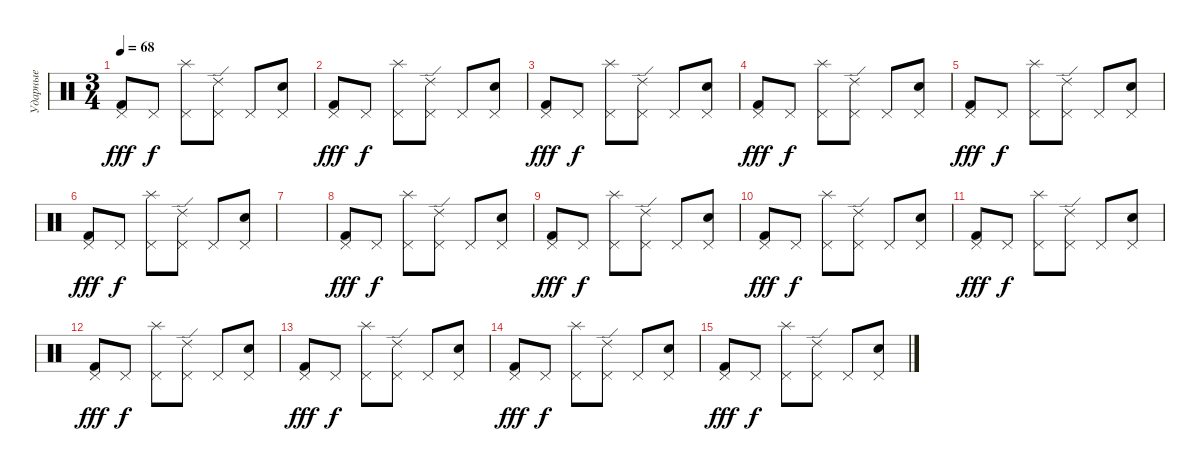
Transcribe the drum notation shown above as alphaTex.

\track ("Ударные" "Ударные") {instrument percussion}
\staff {score}
\articulation defaults
\ts (3 4)
\tempo 68
\clef neutral
\ks c
("Pedal Hi-Hat (hit)" "Kick (hit) 2").8{dy fff} "Pedal Hi-Hat (hit)".8{dy f} ("Pedal Hi-Hat (hit)" "Splash (hit)").8 ("Pedal Hi-Hat (hit)" "Ride (edge) 2").8 "Pedal Hi-Hat (hit)".8 ("Pedal Hi-Hat (hit)" "Snare (hit) 2").8 |
("Pedal Hi-Hat (hit)" "Kick (hit) 2").8{dy fff} "Pedal Hi-Hat (hit)".8{dy f} ("Pedal Hi-Hat (hit)" "Splash (hit)").8 ("Pedal Hi-Hat (hit)" "Ride (edge) 2").8 "Pedal Hi-Hat (hit)".8 ("Pedal Hi-Hat (hit)" "Snare (hit) 2").8 |
("Pedal Hi-Hat (hit)" "Kick (hit) 2").8{dy fff} "Pedal Hi-Hat (hit)".8{dy f} ("Pedal Hi-Hat (hit)" "Splash (hit)").8 ("Pedal Hi-Hat (hit)" "Ride (edge) 2").8 "Pedal Hi-Hat (hit)".8 ("Pedal Hi-Hat (hit)" "Snare (hit) 2").8 |
("Pedal Hi-Hat (hit)" "Kick (hit) 2").8{dy fff} "Pedal Hi-Hat (hit)".8{dy f} ("Pedal Hi-Hat (hit)" "Splash (hit)").8 ("Pedal Hi-Hat (hit)" "Ride (edge) 2").8 "Pedal Hi-Hat (hit)".8 ("Pedal Hi-Hat (hit)" "Snare (hit) 2").8 |
("Pedal Hi-Hat (hit)" "Kick (hit) 2").8{dy fff} "Pedal Hi-Hat (hit)".8{dy f} ("Pedal Hi-Hat (hit)" "Splash (hit)").8 ("Pedal Hi-Hat (hit)" "Ride (edge) 2").8 "Pedal Hi-Hat (hit)".8 ("Pedal Hi-Hat (hit)" "Snare (hit) 2").8 |
("Pedal Hi-Hat (hit)" "Kick (hit) 2").8{dy fff} "Pedal Hi-Hat (hit)".8{dy f} ("Pedal Hi-Hat (hit)" "Splash (hit)").8 ("Pedal Hi-Hat (hit)" "Ride (edge) 2").8 "Pedal Hi-Hat (hit)".8 ("Pedal Hi-Hat (hit)" "Snare (hit) 2").8 |
|
("Pedal Hi-Hat (hit)" "Kick (hit) 2").8{dy fff} "Pedal Hi-Hat (hit)".8{dy f} ("Pedal Hi-Hat (hit)" "Splash (hit)").8 ("Pedal Hi-Hat (hit)" "Ride (edge) 2").8 "Pedal Hi-Hat (hit)".8 ("Pedal Hi-Hat (hit)" "Snare (hit) 2").8 |
("Pedal Hi-Hat (hit)" "Kick (hit) 2").8{dy fff} "Pedal Hi-Hat (hit)".8{dy f} ("Pedal Hi-Hat (hit)" "Splash (hit)").8 ("Pedal Hi-Hat (hit)" "Ride (edge) 2").8 "Pedal Hi-Hat (hit)".8 ("Pedal Hi-Hat (hit)" "Snare (hit) 2").8 |
("Pedal Hi-Hat (hit)" "Kick (hit) 2").8{dy fff} "Pedal Hi-Hat (hit)".8{dy f} ("Pedal Hi-Hat (hit)" "Splash (hit)").8 ("Pedal Hi-Hat (hit)" "Ride (edge) 2").8 "Pedal Hi-Hat (hit)".8 ("Pedal Hi-Hat (hit)" "Snare (hit) 2").8 |
("Pedal Hi-Hat (hit)" "Kick (hit) 2").8{dy fff} "Pedal Hi-Hat (hit)".8{dy f} ("Pedal Hi-Hat (hit)" "Splash (hit)").8 ("Pedal Hi-Hat (hit)" "Ride (edge) 2").8 "Pedal Hi-Hat (hit)".8 ("Pedal Hi-Hat (hit)" "Snare (hit) 2").8 |
("Pedal Hi-Hat (hit)" "Kick (hit) 2").8{dy fff} "Pedal Hi-Hat (hit)".8{dy f} ("Pedal Hi-Hat (hit)" "Splash (hit)").8 ("Pedal Hi-Hat (hit)" "Ride (edge) 2").8 "Pedal Hi-Hat (hit)".8 ("Pedal Hi-Hat (hit)" "Snare (hit) 2").8 |
("Pedal Hi-Hat (hit)" "Kick (hit) 2").8{dy fff} "Pedal Hi-Hat (hit)".8{dy f} ("Pedal Hi-Hat (hit)" "Splash (hit)").8 ("Pedal Hi-Hat (hit)" "Ride (edge) 2").8 "Pedal Hi-Hat (hit)".8 ("Pedal Hi-Hat (hit)" "Snare (hit) 2").8 |
("Pedal Hi-Hat (hit)" "Kick (hit) 2").8{dy fff} "Pedal Hi-Hat (hit)".8{dy f} ("Pedal Hi-Hat (hit)" "Splash (hit)").8 ("Pedal Hi-Hat (hit)" "Ride (edge) 2").8 "Pedal Hi-Hat (hit)".8 ("Pedal Hi-Hat (hit)" "Snare (hit) 2").8 |
("Pedal Hi-Hat (hit)" "Kick (hit) 2").8{dy fff} "Pedal Hi-Hat (hit)".8{dy f} ("Pedal Hi-Hat (hit)" "Splash (hit)").8 ("Pedal Hi-Hat (hit)" "Ride (edge) 2").8 "Pedal Hi-Hat (hit)".8 ("Pedal Hi-Hat (hit)" "Snare (hit) 2").8
